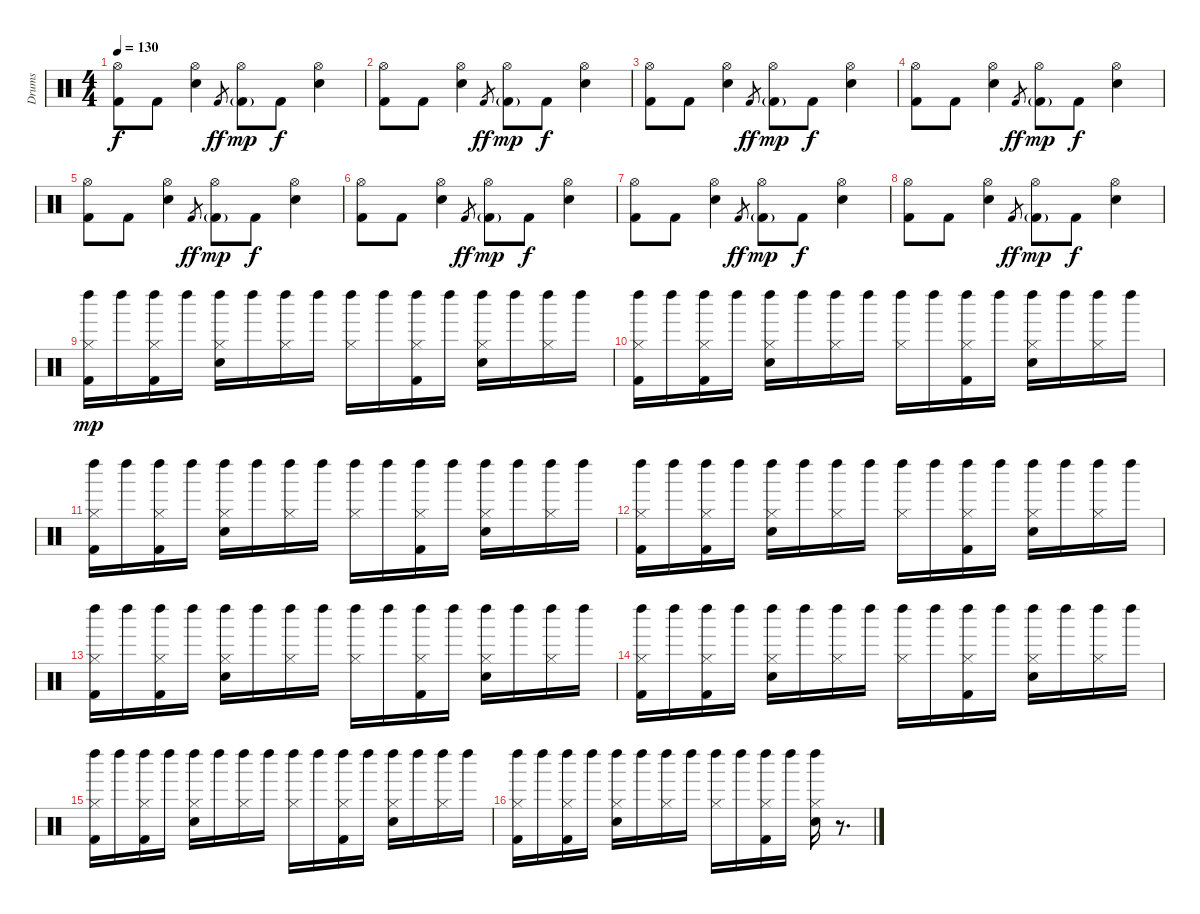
\track ("Drums" "Drums") {instrument percussion}
\staff {score}
\articulation defaults
\ts (4 4)
\tempo 130
\clef neutral
\ks c
("Hi-Hat (open)" "Kick (hit) 2").8{dy f} "Kick (hit) 2".8 ("Hi-Hat (open)" "Electric Snare (hit)").4 "Kick (hit) 2".8{gr dy ff} ("Hi-Hat (open)" "Kick (hit) 2"{g}).8{dy mp} "Kick (hit) 2".8{dy f} ("Hi-Hat (open)" "Electric Snare (hit)").4 |
("Hi-Hat (open)" "Kick (hit) 2").8 "Kick (hit) 2".8 ("Hi-Hat (open)" "Electric Snare (hit)").4 "Kick (hit) 2".8{gr dy ff} ("Hi-Hat (open)" "Kick (hit) 2"{g}).8{dy mp} "Kick (hit) 2".8{dy f} ("Hi-Hat (open)" "Electric Snare (hit)").4 |
("Hi-Hat (open)" "Kick (hit) 2").8 "Kick (hit) 2".8 ("Hi-Hat (open)" "Electric Snare (hit)").4 "Kick (hit) 2".8{gr dy ff} ("Hi-Hat (open)" "Kick (hit) 2"{g}).8{dy mp} "Kick (hit) 2".8{dy f} ("Hi-Hat (open)" "Electric Snare (hit)").4 |
("Hi-Hat (open)" "Kick (hit) 2").8 "Kick (hit) 2".8 ("Hi-Hat (open)" "Electric Snare (hit)").4 "Kick (hit) 2".8{gr dy ff} ("Hi-Hat (open)" "Kick (hit) 2"{g}).8{dy mp} "Kick (hit) 2".8{dy f} ("Hi-Hat (open)" "Electric Snare (hit)").4 |
("Hi-Hat (open)" "Kick (hit) 2").8 "Kick (hit) 2".8 ("Hi-Hat (open)" "Electric Snare (hit)").4 "Kick (hit) 2".8{gr dy ff} ("Hi-Hat (open)" "Kick (hit) 2"{g}).8{dy mp} "Kick (hit) 2".8{dy f} ("Hi-Hat (open)" "Electric Snare (hit)").4 |
("Hi-Hat (open)" "Kick (hit) 2").8 "Kick (hit) 2".8 ("Hi-Hat (open)" "Electric Snare (hit)").4 "Kick (hit) 2".8{gr dy ff} ("Hi-Hat (open)" "Kick (hit) 2"{g}).8{dy mp} "Kick (hit) 2".8{dy f} ("Hi-Hat (open)" "Electric Snare (hit)").4 |
("Hi-Hat (open)" "Kick (hit) 2").8 "Kick (hit) 2".8 ("Hi-Hat (open)" "Electric Snare (hit)").4 "Kick (hit) 2".8{gr dy ff} ("Hi-Hat (open)" "Kick (hit) 2"{g}).8{dy mp} "Kick (hit) 2".8{dy f} ("Hi-Hat (open)" "Electric Snare (hit)").4 |
("Hi-Hat (open)" "Kick (hit) 2").8 "Kick (hit) 2".8 ("Hi-Hat (open)" "Electric Snare (hit)").4 "Kick (hit) 2".8{gr dy ff} ("Hi-Hat (open)" "Kick (hit) 2"{g}).8{dy mp} "Kick (hit) 2".8{dy f} ("Hi-Hat (open)" "Electric Snare (hit)").4 |
("Left Maraca (hit)" "Hi-Hat (closed)" "Kick (hit) 2").16{dy mp} "Left Maraca (hit)".16 ("Left Maraca (hit)" "Hi-Hat (closed)" "Kick (hit) 2").16 "Left Maraca (hit)".16 ("Left Maraca (hit)" "Hi-Hat (closed)" "Electric Snare (hit)").16 "Left Maraca (hit)".16 ("Left Maraca (hit)" "Hi-Hat (closed)").16 "Left Maraca (hit)".16 ("Left Maraca (hit)" "Hi-Hat (closed)").16 "Left Maraca (hit)".16 ("Left Maraca (hit)" "Hi-Hat (closed)" "Kick (hit) 2").16 "Left Maraca (hit)".16 ("Left Maraca (hit)" "Hi-Hat (closed)" "Electric Snare (hit)").16 "Left Maraca (hit)".16 ("Left Maraca (hit)" "Hi-Hat (closed)").16 "Left Maraca (hit)".16 |
("Left Maraca (hit)" "Hi-Hat (closed)" "Kick (hit) 2").16 "Left Maraca (hit)".16 ("Left Maraca (hit)" "Hi-Hat (closed)" "Kick (hit) 2").16 "Left Maraca (hit)".16 ("Left Maraca (hit)" "Hi-Hat (closed)" "Electric Snare (hit)").16 "Left Maraca (hit)".16 ("Left Maraca (hit)" "Hi-Hat (closed)").16 "Left Maraca (hit)".16 ("Left Maraca (hit)" "Hi-Hat (closed)").16 "Left Maraca (hit)".16 ("Left Maraca (hit)" "Hi-Hat (closed)" "Kick (hit) 2").16 "Left Maraca (hit)".16 ("Left Maraca (hit)" "Hi-Hat (closed)" "Electric Snare (hit)").16 "Left Maraca (hit)".16 ("Left Maraca (hit)" "Hi-Hat (closed)").16 "Left Maraca (hit)".16 |
("Left Maraca (hit)" "Hi-Hat (closed)" "Kick (hit) 2").16 "Left Maraca (hit)".16 ("Left Maraca (hit)" "Hi-Hat (closed)" "Kick (hit) 2").16 "Left Maraca (hit)".16 ("Left Maraca (hit)" "Hi-Hat (closed)" "Electric Snare (hit)").16 "Left Maraca (hit)".16 ("Left Maraca (hit)" "Hi-Hat (closed)").16 "Left Maraca (hit)".16 ("Left Maraca (hit)" "Hi-Hat (closed)").16 "Left Maraca (hit)".16 ("Left Maraca (hit)" "Hi-Hat (closed)" "Kick (hit) 2").16 "Left Maraca (hit)".16 ("Left Maraca (hit)" "Hi-Hat (closed)" "Electric Snare (hit)").16 "Left Maraca (hit)".16 ("Left Maraca (hit)" "Hi-Hat (closed)").16 "Left Maraca (hit)".16 |
("Left Maraca (hit)" "Hi-Hat (closed)" "Kick (hit) 2").16 "Left Maraca (hit)".16 ("Left Maraca (hit)" "Hi-Hat (closed)" "Kick (hit) 2").16 "Left Maraca (hit)".16 ("Left Maraca (hit)" "Hi-Hat (closed)" "Electric Snare (hit)").16 "Left Maraca (hit)".16 ("Left Maraca (hit)" "Hi-Hat (closed)").16 "Left Maraca (hit)".16 ("Left Maraca (hit)" "Hi-Hat (closed)").16 "Left Maraca (hit)".16 ("Left Maraca (hit)" "Hi-Hat (closed)" "Kick (hit) 2").16 "Left Maraca (hit)".16 ("Left Maraca (hit)" "Hi-Hat (closed)" "Electric Snare (hit)").16 "Left Maraca (hit)".16 ("Left Maraca (hit)" "Hi-Hat (closed)").16 "Left Maraca (hit)".16 |
("Left Maraca (hit)" "Hi-Hat (closed)" "Kick (hit) 2").16 "Left Maraca (hit)".16 ("Left Maraca (hit)" "Hi-Hat (closed)" "Kick (hit) 2").16 "Left Maraca (hit)".16 ("Left Maraca (hit)" "Hi-Hat (closed)" "Electric Snare (hit)").16 "Left Maraca (hit)".16 ("Left Maraca (hit)" "Hi-Hat (closed)").16 "Left Maraca (hit)".16 ("Left Maraca (hit)" "Hi-Hat (closed)").16 "Left Maraca (hit)".16 ("Left Maraca (hit)" "Hi-Hat (closed)" "Kick (hit) 2").16 "Left Maraca (hit)".16 ("Left Maraca (hit)" "Hi-Hat (closed)" "Electric Snare (hit)").16 "Left Maraca (hit)".16 ("Left Maraca (hit)" "Hi-Hat (closed)").16 "Left Maraca (hit)".16 |
("Left Maraca (hit)" "Hi-Hat (closed)" "Kick (hit) 2").16 "Left Maraca (hit)".16 ("Left Maraca (hit)" "Hi-Hat (closed)" "Kick (hit) 2").16 "Left Maraca (hit)".16 ("Left Maraca (hit)" "Hi-Hat (closed)" "Electric Snare (hit)").16 "Left Maraca (hit)".16 ("Left Maraca (hit)" "Hi-Hat (closed)").16 "Left Maraca (hit)".16 ("Left Maraca (hit)" "Hi-Hat (closed)").16 "Left Maraca (hit)".16 ("Left Maraca (hit)" "Hi-Hat (closed)" "Kick (hit) 2").16 "Left Maraca (hit)".16 ("Left Maraca (hit)" "Hi-Hat (closed)" "Electric Snare (hit)").16 "Left Maraca (hit)".16 ("Left Maraca (hit)" "Hi-Hat (closed)").16 "Left Maraca (hit)".16 |
("Left Maraca (hit)" "Hi-Hat (closed)" "Kick (hit) 2").16 "Left Maraca (hit)".16 ("Left Maraca (hit)" "Hi-Hat (closed)" "Kick (hit) 2").16 "Left Maraca (hit)".16 ("Left Maraca (hit)" "Hi-Hat (closed)" "Electric Snare (hit)").16 "Left Maraca (hit)".16 ("Left Maraca (hit)" "Hi-Hat (closed)").16 "Left Maraca (hit)".16 ("Left Maraca (hit)" "Hi-Hat (closed)").16 "Left Maraca (hit)".16 ("Left Maraca (hit)" "Hi-Hat (closed)" "Kick (hit) 2").16 "Left Maraca (hit)".16 ("Left Maraca (hit)" "Hi-Hat (closed)" "Electric Snare (hit)").16 "Left Maraca (hit)".16 ("Left Maraca (hit)" "Hi-Hat (closed)").16 "Left Maraca (hit)".16 |
("Left Maraca (hit)" "Hi-Hat (closed)" "Kick (hit) 2").16 "Left Maraca (hit)".16 ("Left Maraca (hit)" "Hi-Hat (closed)" "Kick (hit) 2").16 "Left Maraca (hit)".16 ("Left Maraca (hit)" "Hi-Hat (closed)" "Electric Snare (hit)").16 "Left Maraca (hit)".16 ("Left Maraca (hit)" "Hi-Hat (closed)").16 "Left Maraca (hit)".16 ("Left Maraca (hit)" "Hi-Hat (closed)").16 "Left Maraca (hit)".16 ("Left Maraca (hit)" "Hi-Hat (closed)" "Kick (hit) 2").16 "Left Maraca (hit)".16 ("Left Maraca (hit)" "Hi-Hat (closed)" "Electric Snare (hit)").16 r.8{d}
